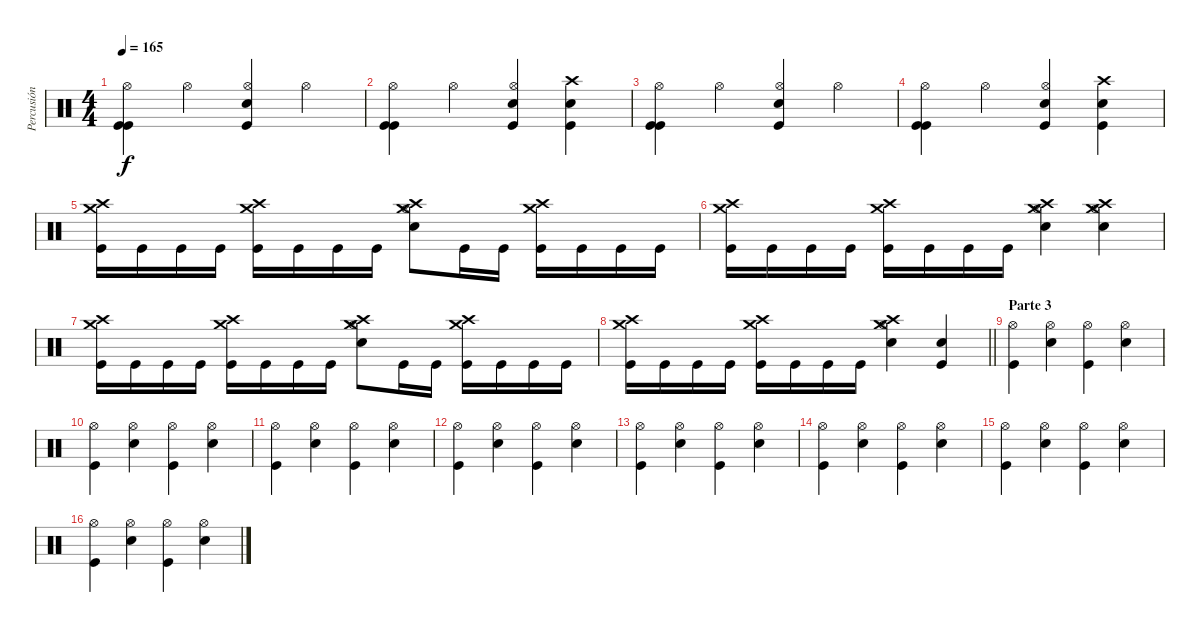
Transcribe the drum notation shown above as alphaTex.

\track ("Percusión" "Percusión") {instrument percussion}
\staff {score}
\articulation defaults
\ts (4 4)
\tempo 165
\clef neutral
\ks c
("Kick (hit)" "Kick (hit)" "Hi-Hat (open)").4{dy f} "Hi-Hat (open)".4 ("Snare (hit) 2" "Kick (hit)" "Hi-Hat (open)").4 "Hi-Hat (open)".4 |
("Kick (hit)" "Kick (hit)" "Hi-Hat (open)").4 "Hi-Hat (open)".4 ("Snare (hit) 2" "Kick (hit)" "Hi-Hat (open)").4 ("Snare (hit) 2" "Kick (hit)" "Crash high (hit)").4 |
("Kick (hit)" "Kick (hit)" "Hi-Hat (open)").4 "Hi-Hat (open)".4 ("Snare (hit) 2" "Kick (hit)" "Hi-Hat (open)").4 "Hi-Hat (open)".4 |
("Kick (hit)" "Kick (hit)" "Hi-Hat (open)").4 "Hi-Hat (open)".4 ("Snare (hit) 2" "Kick (hit)" "Hi-Hat (open)").4 ("Snare (hit) 2" "Kick (hit)" "Crash high (hit)").4 |
("Kick (hit)" "Crash medium (hit)" "Crash high (hit)").16 "Kick (hit)".16 "Kick (hit)".16 "Kick (hit)".16 ("Kick (hit)" "Crash medium (hit)" "Crash high (hit)").16 "Kick (hit)".16 "Kick (hit)".16 "Kick (hit)".16 ("Hi-Hat (open)" "Snare (hit) 2" "Crash medium (hit)" "Crash high (hit)").8 "Kick (hit)".16 "Kick (hit)".16 ("Kick (hit)" "Crash medium (hit)" "Crash high (hit)").16 "Kick (hit)".16 "Kick (hit)".16 "Kick (hit)".16 |
("Kick (hit)" "Crash medium (hit)" "Crash high (hit)").16 "Kick (hit)".16 "Kick (hit)".16 "Kick (hit)".16 ("Kick (hit)" "Crash medium (hit)" "Crash high (hit)").16 "Kick (hit)".16 "Kick (hit)".16 "Kick (hit)".16 ("Snare (hit) 2" "Hi-Hat (open)" "Crash medium (hit)" "Crash high (hit)").4 ("Snare (hit) 2" "Hi-Hat (open)" "Crash medium (hit)" "Crash high (hit)").4 |
("Kick (hit)" "Crash medium (hit)" "Crash high (hit)").16 "Kick (hit)".16 "Kick (hit)".16 "Kick (hit)".16 ("Kick (hit)" "Crash medium (hit)" "Crash high (hit)").16 "Kick (hit)".16 "Kick (hit)".16 "Kick (hit)".16 ("Hi-Hat (open)" "Snare (hit) 2" "Crash medium (hit)" "Crash high (hit)").8 "Kick (hit)".16 "Kick (hit)".16 ("Kick (hit)" "Crash medium (hit)" "Crash high (hit)").16 "Kick (hit)".16 "Kick (hit)".16 "Kick (hit)".16 |
\barLineRight lightlight
("Kick (hit)" "Crash medium (hit)" "Crash high (hit)").16 "Kick (hit)".16 "Kick (hit)".16 "Kick (hit)".16 ("Kick (hit)" "Crash medium (hit)" "Crash high (hit)").16 "Kick (hit)".16 "Kick (hit)".16 "Kick (hit)".16 ("Snare (hit) 2" "Hi-Hat (open)" "Crash medium (hit)" "Crash high (hit)").4 ("Snare (hit) 2" "Kick (hit)").4 |
\section ("" "Parte 3")
("Hi-Hat (open)" "Kick (hit)").4 ("Hi-Hat (open)" "Snare (hit) 2").4 ("Hi-Hat (open)" "Kick (hit)").4 ("Hi-Hat (open)" "Snare (hit) 2").4 |
("Hi-Hat (open)" "Kick (hit)").4 ("Hi-Hat (open)" "Snare (hit) 2").4 ("Hi-Hat (open)" "Kick (hit)").4 ("Hi-Hat (open)" "Snare (hit) 2").4 |
("Hi-Hat (open)" "Kick (hit)").4 ("Hi-Hat (open)" "Snare (hit) 2").4 ("Hi-Hat (open)" "Kick (hit)").4 ("Hi-Hat (open)" "Snare (hit) 2").4 |
("Hi-Hat (open)" "Kick (hit)").4 ("Hi-Hat (open)" "Snare (hit) 2").4 ("Hi-Hat (open)" "Kick (hit)").4 ("Hi-Hat (open)" "Snare (hit) 2").4 |
("Hi-Hat (open)" "Kick (hit)").4 ("Hi-Hat (open)" "Snare (hit) 2").4 ("Hi-Hat (open)" "Kick (hit)").4 ("Hi-Hat (open)" "Snare (hit) 2").4 |
("Hi-Hat (open)" "Kick (hit)").4 ("Hi-Hat (open)" "Snare (hit) 2").4 ("Hi-Hat (open)" "Kick (hit)").4 ("Hi-Hat (open)" "Snare (hit) 2").4 |
("Hi-Hat (open)" "Kick (hit)").4 ("Hi-Hat (open)" "Snare (hit) 2").4 ("Hi-Hat (open)" "Kick (hit)").4 ("Hi-Hat (open)" "Snare (hit) 2").4 |
("Hi-Hat (open)" "Kick (hit)").4 ("Hi-Hat (open)" "Snare (hit) 2").4 ("Hi-Hat (open)" "Kick (hit)").4 ("Hi-Hat (open)" "Snare (hit) 2").4
